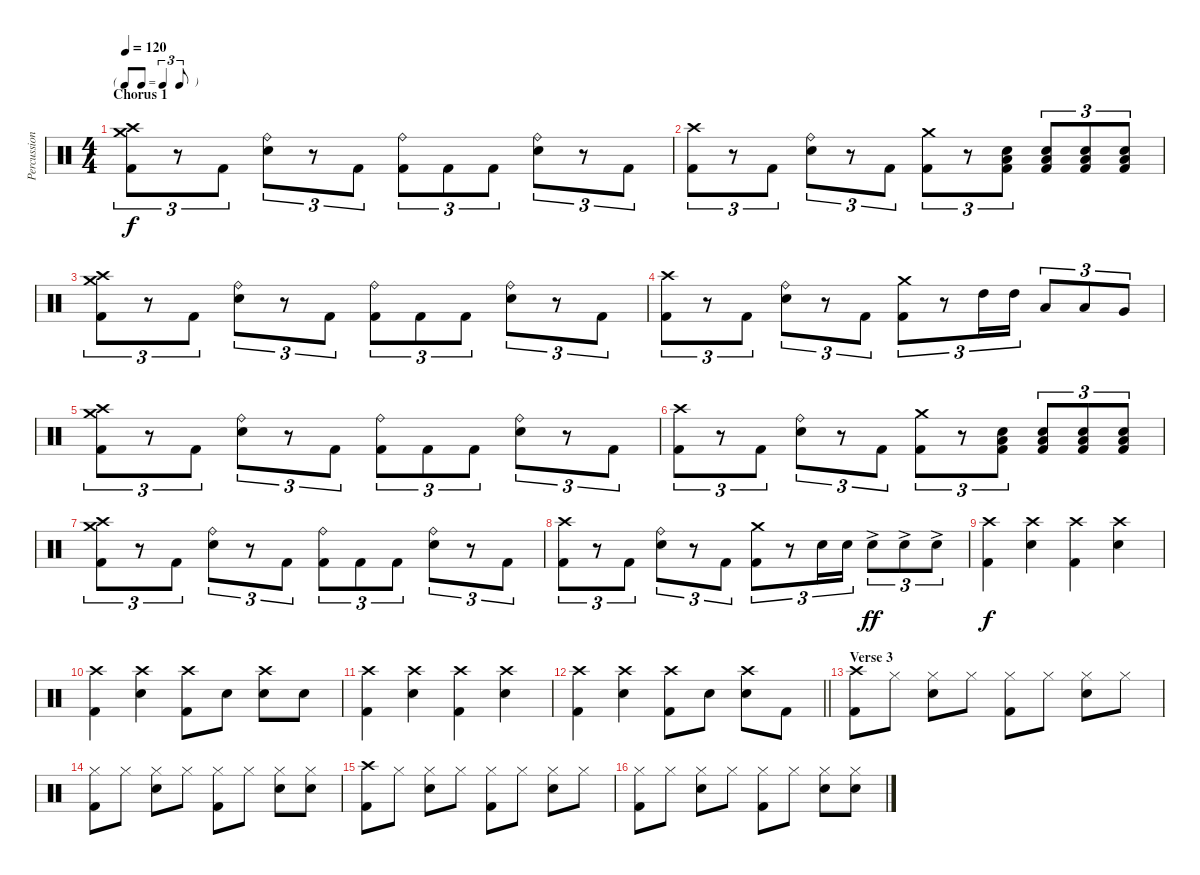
\track ("Percussion" "Percussion") {instrument percussion}
\staff {score}
\articulation defaults
\ts (4 4)
\tf triplet8th
\section ("" "Chorus 1")
\tempo 120
\clef neutral
\ks c
("Crash high (hit)" "Crash medium (hit)" "Kick (hit) 2").8{tu (3 2) dy f} r.8{tu (3 2)} "Kick (hit) 2".8{tu (3 2)} ("Ride (bell)" "Snare (hit) 2").8{tu (3 2)} r.8{tu (3 2)} "Kick (hit) 2".8{tu (3 2)} ("Ride (bell)" "Kick (hit) 2").8{tu (3 2)} "Kick (hit) 2".8{tu (3 2)} "Kick (hit) 2".8{tu (3 2)} ("Ride (bell)" "Snare (hit) 2").8{tu (3 2)} r.8{tu (3 2)} "Kick (hit) 2".8{tu (3 2)} |
("Crash high (hit)" "Kick (hit) 2").8{tu (3 2)} r.8{tu (3 2)} "Kick (hit) 2".8{tu (3 2)} ("Ride (bell)" "Snare (hit) 2").8{tu (3 2)} r.8{tu (3 2)} "Kick (hit) 2".8{tu (3 2)} ("Crash medium (hit)" "Kick (hit) 2").8{tu (3 2)} r.8{tu (3 2)} ("Low Floor Tom (hit)" "Snare (hit) 2" "Kick (hit) 2").8{tu (3 2)} ("Low Floor Tom (hit)" "Snare (hit) 2" "Kick (hit) 2").8{tu (3 2)} ("Low Floor Tom (hit)" "Snare (hit) 2" "Kick (hit) 2").8{tu (3 2)} ("Low Floor Tom (hit)" "Snare (hit) 2" "Kick (hit) 2").8{tu (3 2)} |
("Crash high (hit)" "Crash medium (hit)" "Kick (hit) 2").8{tu (3 2)} r.8{tu (3 2)} "Kick (hit) 2".8{tu (3 2)} ("Ride (bell)" "Snare (hit) 2").8{tu (3 2)} r.8{tu (3 2)} "Kick (hit) 2".8{tu (3 2)} ("Ride (bell)" "Kick (hit) 2").8{tu (3 2)} "Kick (hit) 2".8{tu (3 2)} "Kick (hit) 2".8{tu (3 2)} ("Ride (bell)" "Snare (hit) 2").8{tu (3 2)} r.8{tu (3 2)} "Kick (hit) 2".8{tu (3 2)} |
("Crash high (hit)" "Kick (hit) 2").8{tu (3 2)} r.8{tu (3 2)} "Kick (hit) 2".8{tu (3 2)} ("Ride (bell)" "Snare (hit) 2").8{tu (3 2)} r.8{tu (3 2)} "Kick (hit) 2".8{tu (3 2)} ("Crash medium (hit)" "Kick (hit) 2").8{tu (3 2)} r.8{tu (3 2)} "High Tom (hit)".16{tu (3 2)} "High Tom (hit)".16{tu (3 2)} "Low Tom (hit)".8{tu (3 2)} "Low Tom (hit)".8{tu (3 2)} "Very Low Tom (hit)".8{tu (3 2)} |
("Crash high (hit)" "Crash medium (hit)" "Kick (hit) 2").8{tu (3 2)} r.8{tu (3 2)} "Kick (hit) 2".8{tu (3 2)} ("Ride (bell)" "Snare (hit) 2").8{tu (3 2)} r.8{tu (3 2)} "Kick (hit) 2".8{tu (3 2)} ("Ride (bell)" "Kick (hit) 2").8{tu (3 2)} "Kick (hit) 2".8{tu (3 2)} "Kick (hit) 2".8{tu (3 2)} ("Ride (bell)" "Snare (hit) 2").8{tu (3 2)} r.8{tu (3 2)} "Kick (hit) 2".8{tu (3 2)} |
("Crash high (hit)" "Kick (hit) 2").8{tu (3 2)} r.8{tu (3 2)} "Kick (hit) 2".8{tu (3 2)} ("Ride (bell)" "Snare (hit) 2").8{tu (3 2)} r.8{tu (3 2)} "Kick (hit) 2".8{tu (3 2)} ("Crash medium (hit)" "Kick (hit) 2").8{tu (3 2)} r.8{tu (3 2)} ("Low Floor Tom (hit)" "Snare (hit) 2" "Kick (hit) 2").8{tu (3 2)} ("Low Floor Tom (hit)" "Snare (hit) 2" "Kick (hit) 2").8{tu (3 2)} ("Low Floor Tom (hit)" "Snare (hit) 2" "Kick (hit) 2").8{tu (3 2)} ("Low Floor Tom (hit)" "Snare (hit) 2" "Kick (hit) 2").8{tu (3 2)} |
("Crash high (hit)" "Crash medium (hit)" "Kick (hit) 2").8{tu (3 2)} r.8{tu (3 2)} "Kick (hit) 2".8{tu (3 2)} ("Ride (bell)" "Snare (hit) 2").8{tu (3 2)} r.8{tu (3 2)} "Kick (hit) 2".8{tu (3 2)} ("Ride (bell)" "Kick (hit) 2").8{tu (3 2)} "Kick (hit) 2".8{tu (3 2)} "Kick (hit) 2".8{tu (3 2)} ("Ride (bell)" "Snare (hit) 2").8{tu (3 2)} r.8{tu (3 2)} "Kick (hit) 2".8{tu (3 2)} |
("Crash high (hit)" "Kick (hit) 2").8{tu (3 2)} r.8{tu (3 2)} "Kick (hit) 2".8{tu (3 2)} ("Ride (bell)" "Snare (hit) 2").8{tu (3 2)} r.8{tu (3 2)} "Kick (hit) 2".8{tu (3 2)} ("Crash medium (hit)" "Kick (hit) 2").8{tu (3 2)} r.8{tu (3 2)} "Snare (hit) 2".16{tu (3 2)} "Snare (hit) 2".16{tu (3 2)} "Snare (hit) 2"{ac}.8{tu (3 2) dy ff} "Snare (hit) 2"{ac}.8{tu (3 2)} "Snare (hit) 2"{ac}.8{tu (3 2)} |
("Crash high (hit)" "Kick (hit) 2").4{dy f} ("Crash high (hit)" "Snare (hit) 2").4 ("Crash high (hit)" "Kick (hit) 2").4 ("Crash high (hit)" "Snare (hit) 2").4 |
("Crash high (hit)" "Kick (hit) 2").4 ("Crash high (hit)" "Snare (hit) 2").4 ("Crash high (hit)" "Kick (hit) 2").8 "Snare (hit) 2".8 ("Crash high (hit)" "Snare (hit) 2").8 "Snare (hit) 2".8 |
("Crash high (hit)" "Kick (hit) 2").4 ("Crash high (hit)" "Snare (hit) 2").4 ("Crash high (hit)" "Kick (hit) 2").4 ("Crash high (hit)" "Snare (hit) 2").4 |
\barLineRight lightlight
("Crash high (hit)" "Kick (hit) 2").4 ("Crash high (hit)" "Snare (hit) 2").4 ("Crash high (hit)" "Kick (hit) 2").8 "Snare (hit) 2".8 ("Crash high (hit)" "Snare (hit) 2").8 "Kick (hit) 2".8 |
\section ("" "Verse 3")
("Crash high (hit)" "Kick (hit) 2").8 "Hi-Hat (closed)".8 ("Hi-Hat (closed)" "Snare (hit) 2").8 "Hi-Hat (closed)".8 ("Hi-Hat (closed)" "Kick (hit) 2").8 "Hi-Hat (closed)".8 ("Hi-Hat (closed)" "Snare (hit) 2").8 "Hi-Hat (closed)".8 |
("Hi-Hat (closed)" "Kick (hit) 2").8 "Hi-Hat (closed)".8 ("Hi-Hat (closed)" "Snare (hit) 2").8 "Hi-Hat (closed)".8 ("Hi-Hat (closed)" "Kick (hit) 2").8 "Hi-Hat (closed)".8 ("Hi-Hat (closed)" "Snare (hit) 2").8 ("Hi-Hat (closed)" "Snare (hit) 2").8 |
("Crash high (hit)" "Kick (hit) 2").8 "Hi-Hat (closed)".8 ("Hi-Hat (closed)" "Snare (hit) 2").8 "Hi-Hat (closed)".8 ("Hi-Hat (closed)" "Kick (hit) 2").8 "Hi-Hat (closed)".8 ("Hi-Hat (closed)" "Snare (hit) 2").8 "Hi-Hat (closed)".8 |
("Hi-Hat (closed)" "Kick (hit) 2").8 "Hi-Hat (closed)".8 ("Hi-Hat (closed)" "Snare (hit) 2").8 "Hi-Hat (closed)".8 ("Hi-Hat (closed)" "Kick (hit) 2").8 "Hi-Hat (closed)".8 ("Hi-Hat (closed)" "Snare (hit) 2").8 ("Hi-Hat (closed)" "Snare (hit) 2").8
